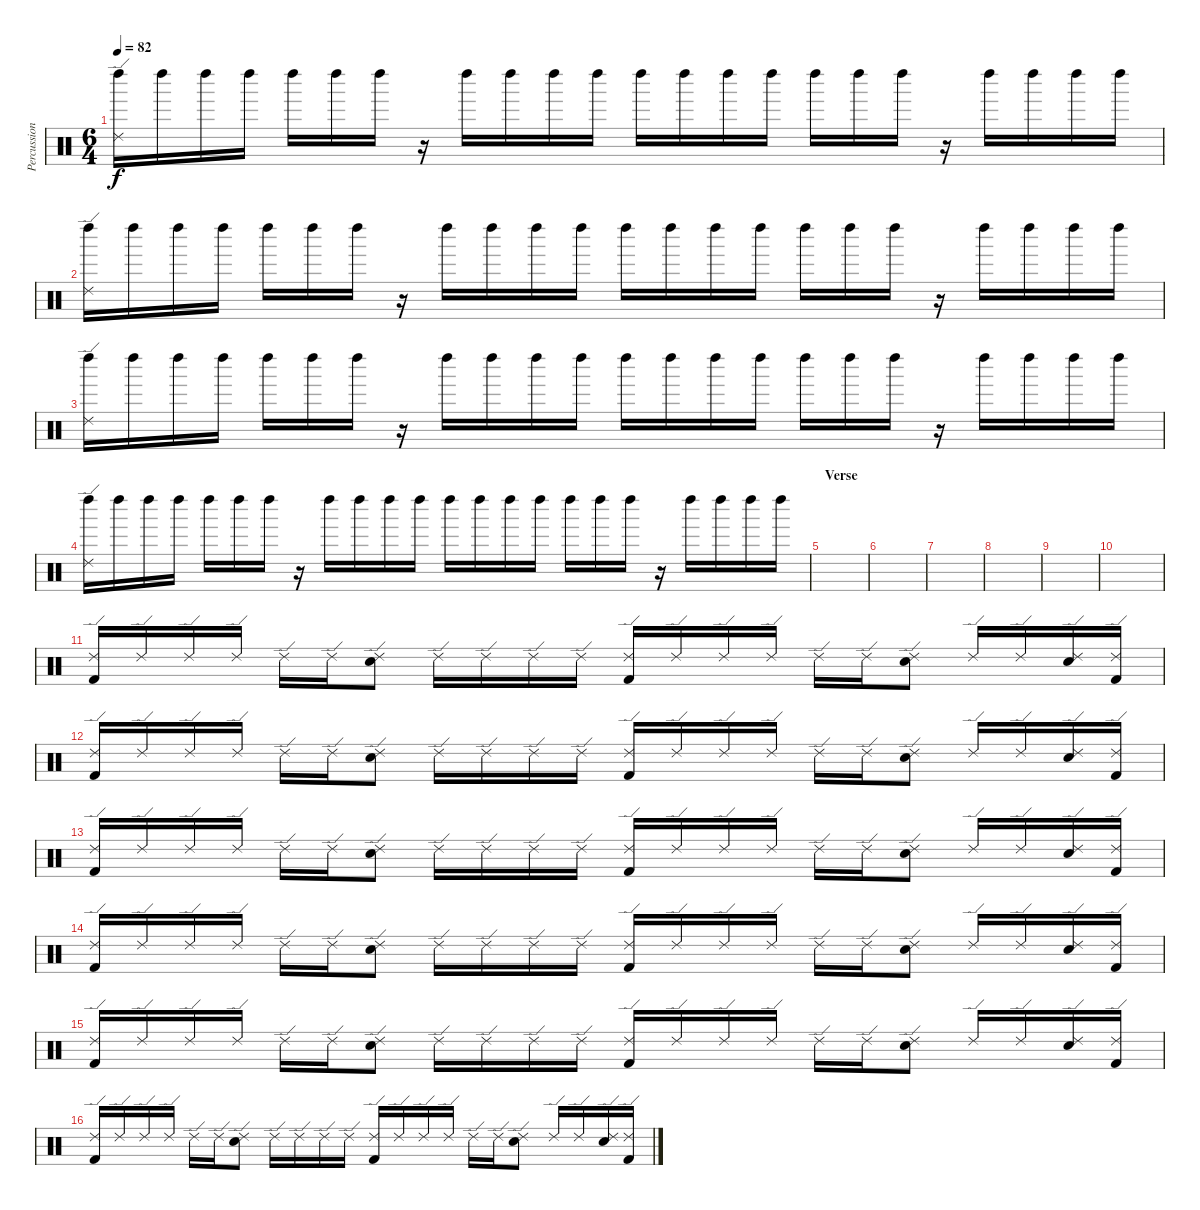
\track ("Percussion" "Percussion") {instrument percussion}
\staff {score}
\articulation defaults
\ts (6 4)
\tempo 82
\clef neutral
\ks c
("Ride (edge) 2" "Left Maraca (hit)").16{dy f} "Left Maraca (hit)".16 "Left Maraca (hit)".16 "Left Maraca (hit)".16 "Left Maraca (hit)".16 "Left Maraca (hit)".16 "Left Maraca (hit)".16 r.16 "Left Maraca (hit)".16 "Left Maraca (hit)".16 "Left Maraca (hit)".16 "Left Maraca (hit)".16 "Left Maraca (hit)".16 "Left Maraca (hit)".16 "Left Maraca (hit)".16 "Left Maraca (hit)".16 "Left Maraca (hit)".16 "Left Maraca (hit)".16 "Left Maraca (hit)".16 r.16 "Left Maraca (hit)".16 "Left Maraca (hit)".16 "Left Maraca (hit)".16 "Left Maraca (hit)".16 |
("Ride (edge) 2" "Left Maraca (hit)").16 "Left Maraca (hit)".16 "Left Maraca (hit)".16 "Left Maraca (hit)".16 "Left Maraca (hit)".16 "Left Maraca (hit)".16 "Left Maraca (hit)".16 r.16 "Left Maraca (hit)".16 "Left Maraca (hit)".16 "Left Maraca (hit)".16 "Left Maraca (hit)".16 "Left Maraca (hit)".16 "Left Maraca (hit)".16 "Left Maraca (hit)".16 "Left Maraca (hit)".16 "Left Maraca (hit)".16 "Left Maraca (hit)".16 "Left Maraca (hit)".16 r.16 "Left Maraca (hit)".16 "Left Maraca (hit)".16 "Left Maraca (hit)".16 "Left Maraca (hit)".16 |
("Ride (edge) 2" "Left Maraca (hit)").16 "Left Maraca (hit)".16 "Left Maraca (hit)".16 "Left Maraca (hit)".16 "Left Maraca (hit)".16 "Left Maraca (hit)".16 "Left Maraca (hit)".16 r.16 "Left Maraca (hit)".16 "Left Maraca (hit)".16 "Left Maraca (hit)".16 "Left Maraca (hit)".16 "Left Maraca (hit)".16 "Left Maraca (hit)".16 "Left Maraca (hit)".16 "Left Maraca (hit)".16 "Left Maraca (hit)".16 "Left Maraca (hit)".16 "Left Maraca (hit)".16 r.16 "Left Maraca (hit)".16 "Left Maraca (hit)".16 "Left Maraca (hit)".16 "Left Maraca (hit)".16 |
("Ride (edge) 2" "Left Maraca (hit)").16 "Left Maraca (hit)".16 "Left Maraca (hit)".16 "Left Maraca (hit)".16 "Left Maraca (hit)".16 "Left Maraca (hit)".16 "Left Maraca (hit)".16 r.16 "Left Maraca (hit)".16 "Left Maraca (hit)".16 "Left Maraca (hit)".16 "Left Maraca (hit)".16 "Left Maraca (hit)".16 "Left Maraca (hit)".16 "Left Maraca (hit)".16 "Left Maraca (hit)".16 "Left Maraca (hit)".16 "Left Maraca (hit)".16 "Left Maraca (hit)".16 r.16 "Left Maraca (hit)".16 "Left Maraca (hit)".16 "Left Maraca (hit)".16 "Left Maraca (hit)".16 |
\section ("" "Verse")
|
|
|
|
|
|
("Ride (edge) 2" "Kick (hit) 2").16 "Ride (edge) 2".16 "Ride (edge) 2".16 "Ride (edge) 2".16 "Ride (edge) 2".16 "Ride (edge) 2".16 ("Ride (edge) 2" "Electric Snare (hit)").8 "Ride (edge) 2".16 "Ride (edge) 2".16 "Ride (edge) 2".16 "Ride (edge) 2".16 ("Ride (edge) 2" "Kick (hit) 2").16 "Ride (edge) 2".16 "Ride (edge) 2".16 "Ride (edge) 2".16 "Ride (edge) 2".16 "Ride (edge) 2".16 ("Ride (edge) 2" "Electric Snare (hit)").8 "Ride (edge) 2".16 "Ride (edge) 2".16 ("Ride (edge) 2" "Electric Snare (hit)").16 ("Ride (edge) 2" "Kick (hit) 2").16 |
("Ride (edge) 2" "Kick (hit) 2").16 "Ride (edge) 2".16 "Ride (edge) 2".16 "Ride (edge) 2".16 "Ride (edge) 2".16 "Ride (edge) 2".16 ("Ride (edge) 2" "Electric Snare (hit)").8 "Ride (edge) 2".16 "Ride (edge) 2".16 "Ride (edge) 2".16 "Ride (edge) 2".16 ("Ride (edge) 2" "Kick (hit) 2").16 "Ride (edge) 2".16 "Ride (edge) 2".16 "Ride (edge) 2".16 "Ride (edge) 2".16 "Ride (edge) 2".16 ("Ride (edge) 2" "Electric Snare (hit)").8 "Ride (edge) 2".16 "Ride (edge) 2".16 ("Ride (edge) 2" "Electric Snare (hit)").16 ("Ride (edge) 2" "Kick (hit) 2").16 |
("Ride (edge) 2" "Kick (hit) 2").16 "Ride (edge) 2".16 "Ride (edge) 2".16 "Ride (edge) 2".16 "Ride (edge) 2".16 "Ride (edge) 2".16 ("Ride (edge) 2" "Electric Snare (hit)").8 "Ride (edge) 2".16 "Ride (edge) 2".16 "Ride (edge) 2".16 "Ride (edge) 2".16 ("Ride (edge) 2" "Kick (hit) 2").16 "Ride (edge) 2".16 "Ride (edge) 2".16 "Ride (edge) 2".16 "Ride (edge) 2".16 "Ride (edge) 2".16 ("Ride (edge) 2" "Electric Snare (hit)").8 "Ride (edge) 2".16 "Ride (edge) 2".16 ("Ride (edge) 2" "Electric Snare (hit)").16 ("Ride (edge) 2" "Kick (hit) 2").16 |
("Ride (edge) 2" "Kick (hit) 2").16 "Ride (edge) 2".16 "Ride (edge) 2".16 "Ride (edge) 2".16 "Ride (edge) 2".16 "Ride (edge) 2".16 ("Ride (edge) 2" "Electric Snare (hit)").8 "Ride (edge) 2".16 "Ride (edge) 2".16 "Ride (edge) 2".16 "Ride (edge) 2".16 ("Ride (edge) 2" "Kick (hit) 2").16 "Ride (edge) 2".16 "Ride (edge) 2".16 "Ride (edge) 2".16 "Ride (edge) 2".16 "Ride (edge) 2".16 ("Ride (edge) 2" "Electric Snare (hit)").8 "Ride (edge) 2".16 "Ride (edge) 2".16 ("Ride (edge) 2" "Electric Snare (hit)").16 ("Ride (edge) 2" "Kick (hit) 2").16 |
("Ride (edge) 2" "Kick (hit) 2").16 "Ride (edge) 2".16 "Ride (edge) 2".16 "Ride (edge) 2".16 "Ride (edge) 2".16 "Ride (edge) 2".16 ("Ride (edge) 2" "Electric Snare (hit)").8 "Ride (edge) 2".16 "Ride (edge) 2".16 "Ride (edge) 2".16 "Ride (edge) 2".16 ("Ride (edge) 2" "Kick (hit) 2").16 "Ride (edge) 2".16 "Ride (edge) 2".16 "Ride (edge) 2".16 "Ride (edge) 2".16 "Ride (edge) 2".16 ("Ride (edge) 2" "Electric Snare (hit)").8 "Ride (edge) 2".16 "Ride (edge) 2".16 ("Ride (edge) 2" "Electric Snare (hit)").16 ("Ride (edge) 2" "Kick (hit) 2").16 |
("Ride (edge) 2" "Kick (hit) 2").16 "Ride (edge) 2".16 "Ride (edge) 2".16 "Ride (edge) 2".16 "Ride (edge) 2".16 "Ride (edge) 2".16 ("Ride (edge) 2" "Electric Snare (hit)").8 "Ride (edge) 2".16 "Ride (edge) 2".16 "Ride (edge) 2".16 "Ride (edge) 2".16 ("Ride (edge) 2" "Kick (hit) 2").16 "Ride (edge) 2".16 "Ride (edge) 2".16 "Ride (edge) 2".16 "Ride (edge) 2".16 "Ride (edge) 2".16 ("Ride (edge) 2" "Electric Snare (hit)").8 "Ride (edge) 2".16 "Ride (edge) 2".16 ("Ride (edge) 2" "Electric Snare (hit)").16 ("Ride (edge) 2" "Kick (hit) 2").16
